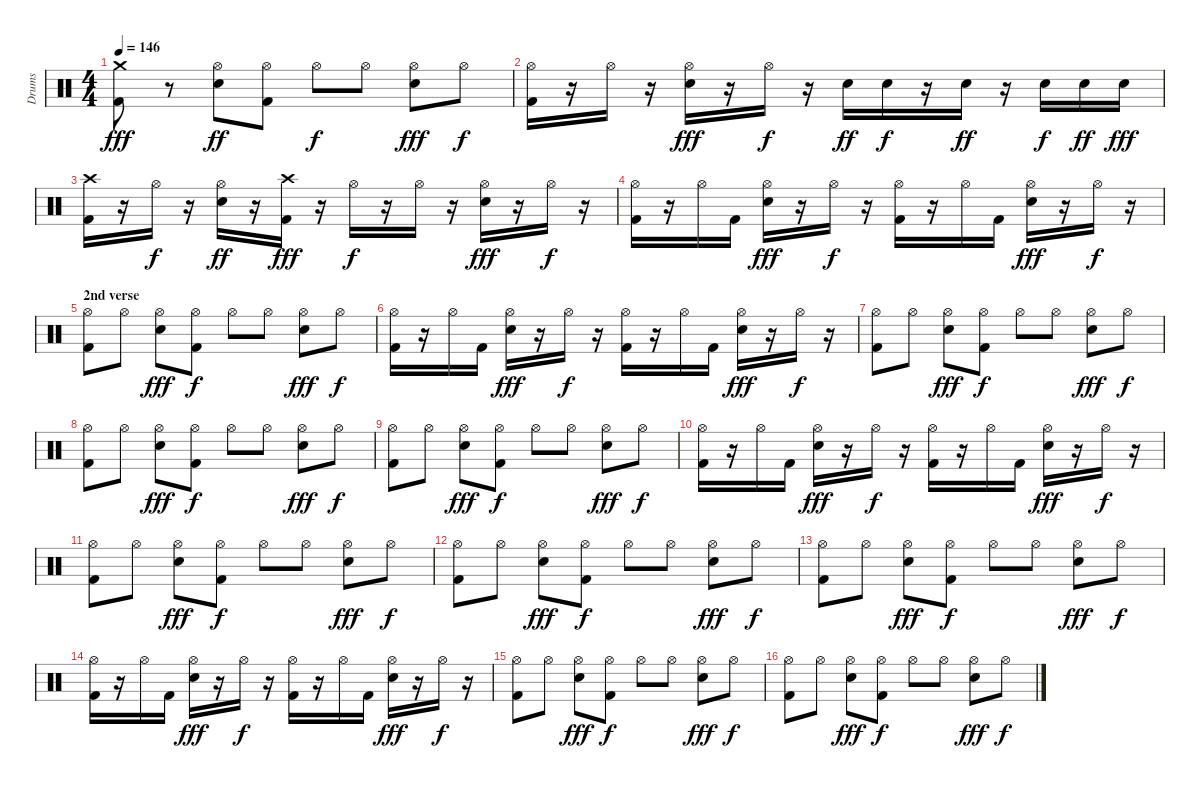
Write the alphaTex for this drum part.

\track ("Drums" "Drums") {instrument percussion}
\staff {score}
\articulation defaults
\ts (4 4)
\tempo 146
\clef neutral
\ks c
("Kick (hit) 2" "Crash medium (hit)").8{dy fff} r.8 ("Hi-Hat (open)" "Snare (hit) 2").8{dy ff} ("Hi-Hat (open)" "Kick (hit) 2").8 "Hi-Hat (open)".8{dy f} "Hi-Hat (open)".8 ("Snare (hit) 2" "Hi-Hat (open)").8{dy fff} "Hi-Hat (open)".8{dy f} |
("Kick (hit) 2" "Hi-Hat (open)").16 r.16 "Hi-Hat (open)".16 r.16 ("Snare (hit) 2" "Hi-Hat (open)").16{dy fff} r.16 "Hi-Hat (open)".16{dy f} r.16 "Snare (hit) 2".16{dy ff} "Snare (hit) 2".16{dy f} r.16 "Snare (hit) 2".16{dy ff} r.16 "Snare (hit) 2".16{dy f} "Snare (hit) 2".16{dy ff} "Snare (hit) 2".16{dy fff} |
("Kick (hit) 2" "Crash high (hit)").16 r.16 "Hi-Hat (open)".16{dy f} r.16 ("Hi-Hat (open)" "Snare (hit) 2").16{dy ff} r.16 ("Kick (hit) 2" "Crash high (hit)").16{dy fff} r.16 "Hi-Hat (open)".16{dy f} r.16 "Hi-Hat (open)".16 r.16 ("Snare (hit) 2" "Hi-Hat (open)").16{dy fff} r.16 "Hi-Hat (open)".16{dy f} r.16 |
("Kick (hit) 2" "Hi-Hat (open)").16 r.16 "Hi-Hat (open)".16 "Kick (hit) 2".16 ("Snare (hit) 2" "Hi-Hat (open)").16{dy fff} r.16 "Hi-Hat (open)".16{dy f} r.16 ("Kick (hit) 2" "Hi-Hat (open)").16 r.16 "Hi-Hat (open)".16 "Kick (hit) 2".16 ("Snare (hit) 2" "Hi-Hat (open)").16{dy fff} r.16 "Hi-Hat (open)".16{dy f} r.16 |
\section ("" "2nd verse")
("Kick (hit) 2" "Hi-Hat (open)").8 "Hi-Hat (open)".8 ("Snare (hit) 2" "Hi-Hat (open)").8{dy fff} ("Kick (hit) 2" "Hi-Hat (open)").8{dy f} "Hi-Hat (open)".8 "Hi-Hat (open)".8 ("Snare (hit) 2" "Hi-Hat (open)").8{dy fff} "Hi-Hat (open)".8{dy f} |
("Kick (hit) 2" "Hi-Hat (open)").16 r.16 "Hi-Hat (open)".16 "Kick (hit) 2".16 ("Snare (hit) 2" "Hi-Hat (open)").16{dy fff} r.16 "Hi-Hat (open)".16{dy f} r.16 ("Kick (hit) 2" "Hi-Hat (open)").16 r.16 "Hi-Hat (open)".16 "Kick (hit) 2".16 ("Snare (hit) 2" "Hi-Hat (open)").16{dy fff} r.16 "Hi-Hat (open)".16{dy f} r.16 |
("Kick (hit) 2" "Hi-Hat (open)").8 "Hi-Hat (open)".8 ("Snare (hit) 2" "Hi-Hat (open)").8{dy fff} ("Kick (hit) 2" "Hi-Hat (open)").8{dy f} "Hi-Hat (open)".8 "Hi-Hat (open)".8 ("Snare (hit) 2" "Hi-Hat (open)").8{dy fff} "Hi-Hat (open)".8{dy f} |
("Kick (hit) 2" "Hi-Hat (open)").8 "Hi-Hat (open)".8 ("Snare (hit) 2" "Hi-Hat (open)").8{dy fff} ("Kick (hit) 2" "Hi-Hat (open)").8{dy f} "Hi-Hat (open)".8 "Hi-Hat (open)".8 ("Snare (hit) 2" "Hi-Hat (open)").8{dy fff} "Hi-Hat (open)".8{dy f} |
("Kick (hit) 2" "Hi-Hat (open)").8 "Hi-Hat (open)".8 ("Snare (hit) 2" "Hi-Hat (open)").8{dy fff} ("Kick (hit) 2" "Hi-Hat (open)").8{dy f} "Hi-Hat (open)".8 "Hi-Hat (open)".8 ("Snare (hit) 2" "Hi-Hat (open)").8{dy fff} "Hi-Hat (open)".8{dy f} |
("Kick (hit) 2" "Hi-Hat (open)").16 r.16 "Hi-Hat (open)".16 "Kick (hit) 2".16 ("Snare (hit) 2" "Hi-Hat (open)").16{dy fff} r.16 "Hi-Hat (open)".16{dy f} r.16 ("Kick (hit) 2" "Hi-Hat (open)").16 r.16 "Hi-Hat (open)".16 "Kick (hit) 2".16 ("Snare (hit) 2" "Hi-Hat (open)").16{dy fff} r.16 "Hi-Hat (open)".16{dy f} r.16 |
("Kick (hit) 2" "Hi-Hat (open)").8 "Hi-Hat (open)".8 ("Snare (hit) 2" "Hi-Hat (open)").8{dy fff} ("Kick (hit) 2" "Hi-Hat (open)").8{dy f} "Hi-Hat (open)".8 "Hi-Hat (open)".8 ("Snare (hit) 2" "Hi-Hat (open)").8{dy fff} "Hi-Hat (open)".8{dy f} |
("Kick (hit) 2" "Hi-Hat (open)").8 "Hi-Hat (open)".8 ("Snare (hit) 2" "Hi-Hat (open)").8{dy fff} ("Kick (hit) 2" "Hi-Hat (open)").8{dy f} "Hi-Hat (open)".8 "Hi-Hat (open)".8 ("Snare (hit) 2" "Hi-Hat (open)").8{dy fff} "Hi-Hat (open)".8{dy f} |
("Kick (hit) 2" "Hi-Hat (open)").8 "Hi-Hat (open)".8 ("Snare (hit) 2" "Hi-Hat (open)").8{dy fff} ("Kick (hit) 2" "Hi-Hat (open)").8{dy f} "Hi-Hat (open)".8 "Hi-Hat (open)".8 ("Snare (hit) 2" "Hi-Hat (open)").8{dy fff} "Hi-Hat (open)".8{dy f} |
("Kick (hit) 2" "Hi-Hat (open)").16 r.16 "Hi-Hat (open)".16 "Kick (hit) 2".16 ("Snare (hit) 2" "Hi-Hat (open)").16{dy fff} r.16 "Hi-Hat (open)".16{dy f} r.16 ("Kick (hit) 2" "Hi-Hat (open)").16 r.16 "Hi-Hat (open)".16 "Kick (hit) 2".16 ("Snare (hit) 2" "Hi-Hat (open)").16{dy fff} r.16 "Hi-Hat (open)".16{dy f} r.16 |
("Kick (hit) 2" "Hi-Hat (open)").8 "Hi-Hat (open)".8 ("Snare (hit) 2" "Hi-Hat (open)").8{dy fff} ("Kick (hit) 2" "Hi-Hat (open)").8{dy f} "Hi-Hat (open)".8 "Hi-Hat (open)".8 ("Snare (hit) 2" "Hi-Hat (open)").8{dy fff} "Hi-Hat (open)".8{dy f} |
("Kick (hit) 2" "Hi-Hat (open)").8 "Hi-Hat (open)".8 ("Snare (hit) 2" "Hi-Hat (open)").8{dy fff} ("Kick (hit) 2" "Hi-Hat (open)").8{dy f} "Hi-Hat (open)".8 "Hi-Hat (open)".8 ("Snare (hit) 2" "Hi-Hat (open)").8{dy fff} "Hi-Hat (open)".8{dy f}
